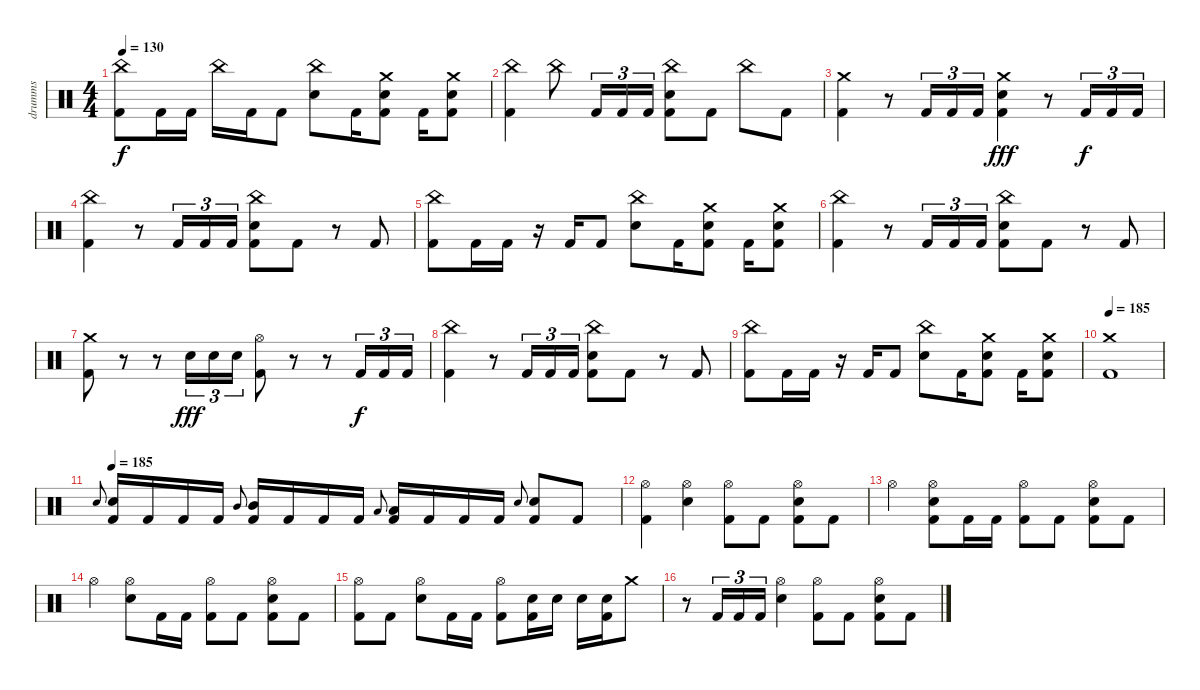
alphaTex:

\track ("drumms" "drumms") {instrument percussion}
\staff {score}
\articulation defaults
\ts (4 4)
\tempo 130
\clef neutral
\ks c
("China (hit)" "Kick (hit) 2").8{dy f} "Kick (hit) 2".16 "Kick (hit) 2".16 "China (hit)".16 "Kick (hit) 2".16 "Kick (hit) 2".8 ("China (hit)" "Electric Snare (hit)").8 "Kick (hit) 2".16 ("Crash medium (hit)" "Electric Snare (hit)" "Kick (hit) 2").8 "Kick (hit) 2".16 ("Crash medium (hit)" "Electric Snare (hit)" "Kick (hit) 2").8 |
("China (hit)" "Kick (hit) 2").4 "China (hit)".8 "Kick (hit) 2".16{tu (3 2)} "Kick (hit) 2".16{tu (3 2)} "Kick (hit) 2".16{tu (3 2)} ("China (hit)" "Electric Snare (hit)" "Kick (hit) 2").8 "Kick (hit) 2".8 "China (hit)".8 "Kick (hit) 2".8 |
("Crash medium (hit)" "Kick (hit) 2").4 r.8 "Kick (hit) 2".16{tu (3 2)} "Kick (hit) 2".16{tu (3 2)} "Kick (hit) 2".16{tu (3 2)} ("Crash medium (hit)" "Electric Snare (hit)" "Kick (hit) 2").4{dy fff} r.8 "Kick (hit) 2".16{tu (3 2) dy f} "Kick (hit) 2".16{tu (3 2)} "Kick (hit) 2".16{tu (3 2)} |
("China (hit)" "Kick (hit) 2").4 r.8 "Kick (hit) 2".16{tu (3 2)} "Kick (hit) 2".16{tu (3 2)} "Kick (hit) 2".16{tu (3 2)} ("China (hit)" "Electric Snare (hit)" "Kick (hit) 2").8 "Kick (hit) 2".8 r.8 "Kick (hit) 2".8 |
("China (hit)" "Kick (hit) 2").8 "Kick (hit) 2".16 "Kick (hit) 2".16 r.16 "Kick (hit) 2".16 "Kick (hit) 2".8 ("China (hit)" "Electric Snare (hit)").8 "Kick (hit) 2".16 ("Crash medium (hit)" "Electric Snare (hit)" "Kick (hit) 2").8 "Kick (hit) 2".16 ("Crash medium (hit)" "Electric Snare (hit)" "Kick (hit) 2").8 |
("China (hit)" "Kick (hit) 2").4 r.8 "Kick (hit) 2".16{tu (3 2)} "Kick (hit) 2".16{tu (3 2)} "Kick (hit) 2".16{tu (3 2)} ("China (hit)" "Electric Snare (hit)" "Kick (hit) 2").8 "Kick (hit) 2".8 r.8 "Kick (hit) 2".8 |
("Crash medium (hit)" "Kick (hit) 2").8 r.8 r.8 "Electric Snare (hit)".16{tu (3 2) dy fff} "Electric Snare (hit)".16{tu (3 2)} "Electric Snare (hit)".16{tu (3 2)} ("Hi-Hat (open)" "Kick (hit) 2").8 r.8 r.8 "Kick (hit) 2".16{tu (3 2) dy f} "Kick (hit) 2".16{tu (3 2)} "Kick (hit) 2".16{tu (3 2)} |
("China (hit)" "Kick (hit) 2").4 r.8 "Kick (hit) 2".16{tu (3 2)} "Kick (hit) 2".16{tu (3 2)} "Kick (hit) 2".16{tu (3 2)} ("China (hit)" "Electric Snare (hit)" "Kick (hit) 2").8 "Kick (hit) 2".8 r.8 "Kick (hit) 2".8 |
("China (hit)" "Kick (hit) 2").8 "Kick (hit) 2".16 "Kick (hit) 2".16 r.16 "Kick (hit) 2".16 "Kick (hit) 2".8 ("China (hit)" "Electric Snare (hit)").8 "Kick (hit) 2".16 ("Crash medium (hit)" "Electric Snare (hit)" "Kick (hit) 2").8 "Kick (hit) 2".16 ("Crash medium (hit)" "Electric Snare (hit)" "Kick (hit) 2").8 |
\tempo 185
("Crash medium (hit)" "Kick (hit) 2").1 |
\tempo (185 0.03125)
"Electric Snare (hit)"{x}.8{gr onbeat} ("Electric Snare (hit)" "Kick (hit) 2").16 "Kick (hit) 2".16 "Kick (hit) 2".16 "Kick (hit) 2".16 "Mid Tom (hit)"{x}.8{gr onbeat} ("Mid Tom (hit)" "Kick (hit) 2").16 "Kick (hit) 2".16 "Kick (hit) 2".16 "Kick (hit) 2".16 "Low Tom (hit)"{x}.8{gr onbeat} ("Low Tom (hit)" "Kick (hit) 2").16 "Kick (hit) 2".16 "Kick (hit) 2".16 "Kick (hit) 2".16 "Electric Snare (hit)"{x}.8{gr onbeat} ("Electric Snare (hit)" "Kick (hit) 2").8 "Kick (hit) 2".8 |
("Hi-Hat (open)" "Kick (hit) 2").4 ("Hi-Hat (open)" "Electric Snare (hit)").4 ("Hi-Hat (open)" "Kick (hit) 2").8 "Kick (hit) 2".8 ("Hi-Hat (open)" "Electric Snare (hit)" "Kick (hit) 2").8 "Kick (hit) 2".8 |
"Hi-Hat (open)".4 ("Hi-Hat (open)" "Electric Snare (hit)" "Kick (hit) 2").8 "Kick (hit) 2".16 "Kick (hit) 2".16 ("Hi-Hat (open)" "Kick (hit) 2").8 "Kick (hit) 2".8 ("Hi-Hat (open)" "Electric Snare (hit)" "Kick (hit) 2").8 "Kick (hit) 2".8 |
"Hi-Hat (open)".4 ("Hi-Hat (open)" "Electric Snare (hit)").8 "Kick (hit) 2".16 "Kick (hit) 2".16 ("Hi-Hat (open)" "Kick (hit) 2").8 "Kick (hit) 2".8 ("Hi-Hat (open)" "Electric Snare (hit)" "Kick (hit) 2").8 "Kick (hit) 2".8 |
("Hi-Hat (open)" "Kick (hit) 2").8 "Kick (hit) 2".8 ("Hi-Hat (open)" "Electric Snare (hit)").8 "Kick (hit) 2".16 "Kick (hit) 2".16 ("Hi-Hat (open)" "Kick (hit) 2").8 ("Electric Snare (hit)" "Kick (hit) 2").16 "Electric Snare (hit)".16 "Electric Snare (hit)".16 ("Electric Snare (hit)" "Kick (hit) 2").16 "Crash medium (hit)".8 |
r.8 "Kick (hit) 2".16{tu (3 2)} "Kick (hit) 2".16{tu (3 2)} "Kick (hit) 2".16{tu (3 2)} ("Hi-Hat (open)" "Electric Snare (hit)").4 ("Hi-Hat (open)" "Kick (hit) 2").8 "Kick (hit) 2".8 ("Hi-Hat (open)" "Electric Snare (hit)" "Kick (hit) 2").8 "Kick (hit) 2".8
